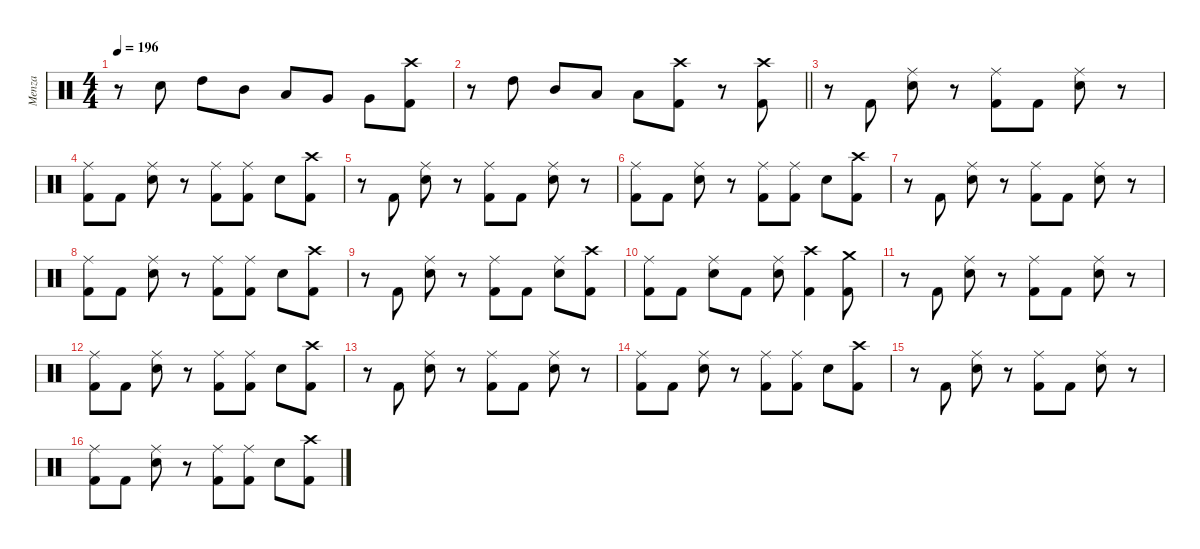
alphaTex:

\defaultSystemsLayout 4
\hideDynamics
\bracketExtendMode nobrackets
\firstSystemTrackNameMode fullname
\otherSystemsTrackNameOrientation horizontal
\track ("Menza" "drm.") {instrument percussion}
\staff {score}
\articulation defaults
\ts (4 4)
\tempo 196
\clef neutral
\ks c
r.8{dy ff beam Down} "Snare (hit) 2".8{beam Down} "High Tom (hit)".8{beam Down} "Mid Tom (hit)".8{beam Down} "Low Tom (hit)".8{beam Up} "Very Low Tom (hit)".8{beam Up} "Very Low Tom (hit)".8{beam Down} ("Crash high (hit)" "Kick (hit) 2").8{dy f beam Down} |
\barLineRight lightlight
r.8{beam Down} "High Tom (hit)".8{dy ff beam Down} "Mid Tom (hit)".8{beam Up} "Low Tom (hit)".8{beam Up} "Low Floor Tom (hit)".8{beam Down} ("Crash high (hit)" "Kick (hit) 2").8{dy f beam Down} r.8{beam Down} ("Crash high (hit)" "Kick (hit) 2").8{beam Down} |
r.8{beam Down} "Kick (hit) 2".8{dy fff beam Up} ("Ride (middle)" "Snare (hit) 2").8{dy ff beam Down} r.8{beam Down} ("Ride (middle)" "Kick (hit) 2").8{beam Down} "Kick (hit) 2".8{dy fff beam Down} ("Ride (middle)" "Snare (hit) 2").8{dy ff beam Down} r.8{beam Down} |
("Ride (middle)" "Kick (hit) 2").8{beam Down} "Kick (hit) 2".8{dy fff beam Down} ("Ride (middle)" "Snare (hit) 2").8{dy ff beam Down} r.8{beam Down} ("Ride (middle)" "Kick (hit) 2").8{beam Down} ("Ride (middle)" "Kick (hit) 2").8{dy f beam Down} "Snare (hit) 2".8{dy fff beam Down} ("Crash high (hit)" "Kick (hit) 2").8{beam Down} |
r.8{beam Down} "Kick (hit) 2".8{beam Up} ("Ride (middle)" "Snare (hit) 2").8{dy ff beam Down} r.8{beam Down} ("Ride (middle)" "Kick (hit) 2").8{beam Down} "Kick (hit) 2".8{dy fff beam Down} ("Ride (middle)" "Snare (hit) 2").8{dy ff beam Down} r.8{beam Down} |
("Ride (middle)" "Kick (hit) 2").8{beam Down} "Kick (hit) 2".8{dy fff beam Down} ("Ride (middle)" "Snare (hit) 2").8{dy ff beam Down} r.8{beam Down} ("Ride (middle)" "Kick (hit) 2").8{beam Down} ("Ride (middle)" "Kick (hit) 2").8{dy f beam Down} "Snare (hit) 2".8{dy fff beam Down} ("Crash high (hit)" "Kick (hit) 2").8{beam Down} |
r.8{beam Down} "Kick (hit) 2".8{beam Up} ("Ride (middle)" "Snare (hit) 2").8{dy ff beam Down} r.8{beam Down} ("Ride (middle)" "Kick (hit) 2").8{beam Down} "Kick (hit) 2".8{dy fff beam Down} ("Ride (middle)" "Snare (hit) 2").8{dy ff beam Down} r.8{beam Down} |
("Ride (middle)" "Kick (hit) 2").8{beam Down} "Kick (hit) 2".8{dy fff beam Down} ("Ride (middle)" "Snare (hit) 2").8{dy ff beam Down} r.8{beam Down} ("Ride (middle)" "Kick (hit) 2").8{beam Down} ("Ride (middle)" "Kick (hit) 2").8{dy f beam Down} "Snare (hit) 2".8{dy fff beam Down} ("Crash high (hit)" "Kick (hit) 2").8{beam Down} |
r.8{beam Down} "Kick (hit) 2".8{beam Up} ("Ride (middle)" "Snare (hit) 2").8{dy ff beam Down} r.8{beam Down} ("Ride (middle)" "Kick (hit) 2").8{beam Down} "Kick (hit) 2".8{dy fff beam Down} ("Ride (middle)" "Snare (hit) 2").8{dy ff beam Down} ("Crash high (hit)" "Kick (hit) 2").8{beam Down} |
("Ride (middle)" "Kick (hit) 2").8{beam Down} "Kick (hit) 2".8{dy fff beam Down} ("Ride (middle)" "Snare (hit) 2").8{dy ff beam Down} "Kick (hit) 2".8{dy fff beam Down} ("Ride (middle)" "Snare (hit) 2").8{dy ff beam Down} ("Crash high (hit)" "Kick (hit) 2").4{beam Down} ("Crash medium (hit)" "Kick (hit) 2").8{dy fff beam Down} |
r.8{beam Down} "Kick (hit) 2".8{beam Up} ("Ride (middle)" "Snare (hit) 2").8{dy ff beam Down} r.8{beam Down} ("Ride (middle)" "Kick (hit) 2").8{beam Down} "Kick (hit) 2".8{dy fff beam Down} ("Ride (middle)" "Snare (hit) 2").8{dy ff beam Down} r.8{beam Down} |
("Ride (middle)" "Kick (hit) 2").8{beam Down} "Kick (hit) 2".8{dy fff beam Down} ("Ride (middle)" "Snare (hit) 2").8{dy ff beam Down} r.8{beam Down} ("Ride (middle)" "Kick (hit) 2").8{dy f beam Down} ("Ride (middle)" "Kick (hit) 2").8{beam Down} "Snare (hit) 2".8{dy fff beam Down} ("Crash high (hit)" "Kick (hit) 2").8{beam Down} |
r.8{beam Down} "Kick (hit) 2".8{beam Up} ("Ride (middle)" "Snare (hit) 2").8{dy ff beam Down} r.8{beam Down} ("Ride (middle)" "Kick (hit) 2").8{beam Down} "Kick (hit) 2".8{dy fff beam Down} ("Ride (middle)" "Snare (hit) 2").8{dy ff beam Down} r.8{beam Down} |
("Ride (middle)" "Kick (hit) 2").8{beam Down} "Kick (hit) 2".8{dy fff beam Down} ("Ride (middle)" "Snare (hit) 2").8{dy ff beam Down} r.8{beam Down} ("Ride (middle)" "Kick (hit) 2").8{beam Down} ("Ride (middle)" "Kick (hit) 2").8{dy f beam Down} "Snare (hit) 2".8{dy fff beam Down} ("Crash high (hit)" "Kick (hit) 2").8{beam Down} |
r.8{beam Down} "Kick (hit) 2".8{beam Up} ("Ride (middle)" "Snare (hit) 2").8{dy ff beam Down} r.8{beam Down} ("Ride (middle)" "Kick (hit) 2").8{beam Down} "Kick (hit) 2".8{dy fff beam Down} ("Ride (middle)" "Snare (hit) 2").8{dy ff beam Down} r.8{beam Down} |
("Ride (middle)" "Kick (hit) 2").8{beam Down} "Kick (hit) 2".8{dy fff beam Down} ("Ride (middle)" "Snare (hit) 2").8{dy ff beam Down} r.8{beam Down} ("Ride (middle)" "Kick (hit) 2").8{beam Down} ("Ride (middle)" "Kick (hit) 2").8{dy f beam Down} "Snare (hit) 2".8{dy fff beam Down} ("Crash high (hit)" "Kick (hit) 2").8{beam Down}
